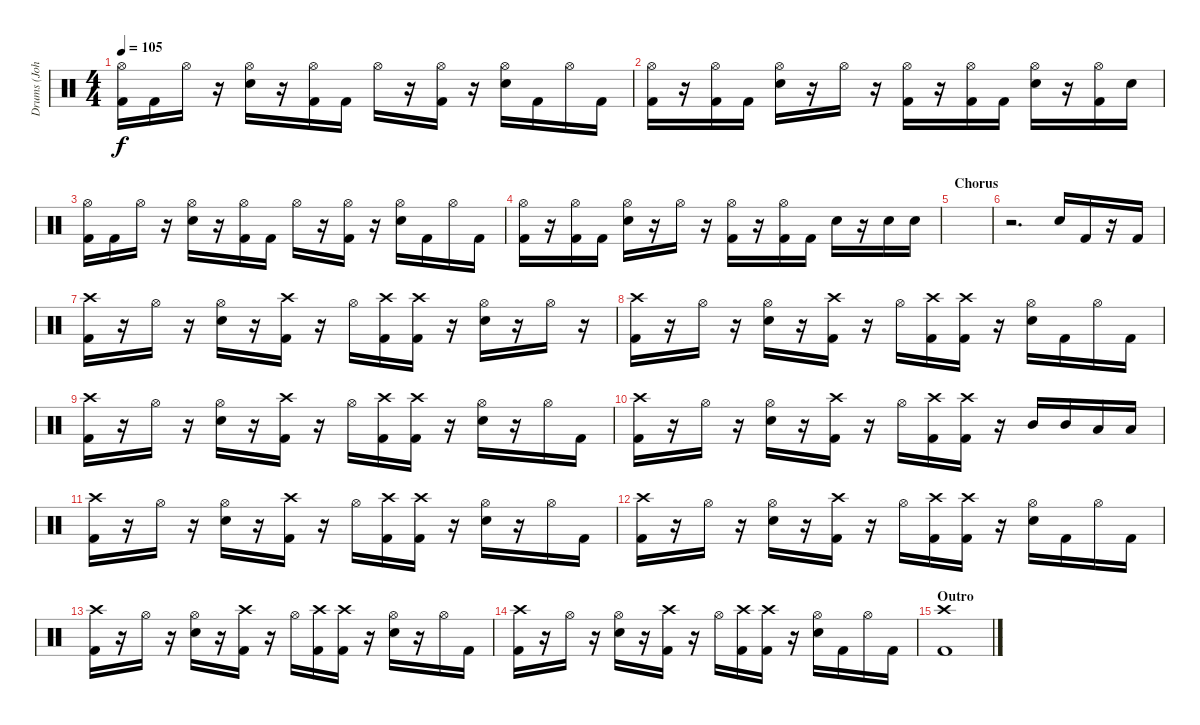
\track ("Drums (John Otto)" "Drums (Joh") {instrument percussion}
\staff {score}
\articulation defaults
\ts (4 4)
\tempo 105
\clef neutral
\ks c
("Hi-Hat (open)" "Kick (hit) 2").16{dy f} "Kick (hit) 2".16 "Hi-Hat (open)".16 r.16 ("Hi-Hat (open)" "Electric Snare (hit)").16 r.16 ("Hi-Hat (open)" "Kick (hit) 2").16 "Kick (hit) 2".16 "Hi-Hat (open)".16 r.16 ("Hi-Hat (open)" "Kick (hit) 2").16 r.16 ("Hi-Hat (open)" "Electric Snare (hit)").16 "Kick (hit) 2".16 "Hi-Hat (open)".16 "Kick (hit) 2".16 |
("Hi-Hat (open)" "Kick (hit) 2").16 r.16 ("Hi-Hat (open)" "Kick (hit) 2").16 "Kick (hit) 2".16 ("Hi-Hat (open)" "Electric Snare (hit)").16 r.16 "Hi-Hat (open)".16 r.16 ("Hi-Hat (open)" "Kick (hit) 2").16 r.16 ("Hi-Hat (open)" "Kick (hit) 2").16 "Kick (hit) 2".16 ("Hi-Hat (open)" "Electric Snare (hit)").16 r.16 ("Hi-Hat (open)" "Kick (hit) 2").16 "Electric Snare (hit)".16 |
("Hi-Hat (open)" "Kick (hit) 2").16 "Kick (hit) 2".16 "Hi-Hat (open)".16 r.16 ("Hi-Hat (open)" "Electric Snare (hit)").16 r.16 ("Hi-Hat (open)" "Kick (hit) 2").16 "Kick (hit) 2".16 "Hi-Hat (open)".16 r.16 ("Hi-Hat (open)" "Kick (hit) 2").16 r.16 ("Hi-Hat (open)" "Electric Snare (hit)").16 "Kick (hit) 2".16 "Hi-Hat (open)".16 "Kick (hit) 2".16 |
("Hi-Hat (open)" "Kick (hit) 2").16 r.16 ("Hi-Hat (open)" "Kick (hit) 2").16 "Kick (hit) 2".16 ("Hi-Hat (open)" "Electric Snare (hit)").16 r.16 "Hi-Hat (open)".16 r.16 ("Hi-Hat (open)" "Kick (hit) 2").16 r.16 ("Hi-Hat (open)" "Kick (hit) 2").16 "Kick (hit) 2".16 "Electric Snare (hit)".16 r.16 "Electric Snare (hit)".16 "Electric Snare (hit)".16 |
\section ("" "Chorus")
|
r.2{d} "Electric Snare (hit)".16 "Kick (hit) 2".16 r.16 "Kick (hit) 2".16 |
("Crash high (hit)" "Kick (hit) 2").16 r.16 "Hi-Hat (open)".16 r.16 ("Hi-Hat (open)" "Electric Snare (hit)").16 r.16 ("Crash high (hit)" "Kick (hit) 2").16 r.16 "Hi-Hat (open)".16 ("Crash high (hit)" "Kick (hit) 2").16 ("Crash high (hit)" "Kick (hit) 2").16 r.16 ("Hi-Hat (open)" "Electric Snare (hit)").16 r.16 "Hi-Hat (open)".16 r.16 |
("Crash high (hit)" "Kick (hit) 2").16 r.16 "Hi-Hat (open)".16 r.16 ("Hi-Hat (open)" "Electric Snare (hit)").16 r.16 ("Crash high (hit)" "Kick (hit) 2").16 r.16 "Hi-Hat (open)".16 ("Crash high (hit)" "Kick (hit) 2").16 ("Crash high (hit)" "Kick (hit) 2").16 r.16 ("Hi-Hat (open)" "Electric Snare (hit)").16 "Kick (hit) 2".16 "Hi-Hat (open)".16 "Kick (hit) 2".16 |
("Crash high (hit)" "Kick (hit) 2").16 r.16 "Hi-Hat (open)".16 r.16 ("Hi-Hat (open)" "Electric Snare (hit)").16 r.16 ("Crash high (hit)" "Kick (hit) 2").16 r.16 "Hi-Hat (open)".16 ("Crash high (hit)" "Kick (hit) 2").16 ("Crash high (hit)" "Kick (hit) 2").16 r.16 ("Hi-Hat (open)" "Electric Snare (hit)").16 r.16 "Hi-Hat (open)".16 "Kick (hit) 2".16 |
("Crash high (hit)" "Kick (hit) 2").16 r.16 "Hi-Hat (open)".16 r.16 ("Hi-Hat (open)" "Electric Snare (hit)").16 r.16 ("Crash high (hit)" "Kick (hit) 2").16 r.16 "Hi-Hat (open)".16 ("Crash high (hit)" "Kick (hit) 2").16 ("Crash high (hit)" "Kick (hit) 2").16 r.16 "Mid Tom (hit)".16 "Mid Tom (hit)".16 "Low Tom (hit)".16 "Low Tom (hit)".16 |
("Crash high (hit)" "Kick (hit) 2").16 r.16 "Hi-Hat (open)".16 r.16 ("Hi-Hat (open)" "Electric Snare (hit)").16 r.16 ("Crash high (hit)" "Kick (hit) 2").16 r.16 "Hi-Hat (open)".16 ("Crash high (hit)" "Kick (hit) 2").16 ("Crash high (hit)" "Kick (hit) 2").16 r.16 ("Hi-Hat (open)" "Electric Snare (hit)").16 r.16 "Hi-Hat (open)".16 "Kick (hit) 2".16 |
("Crash high (hit)" "Kick (hit) 2").16 r.16 "Hi-Hat (open)".16 r.16 ("Hi-Hat (open)" "Electric Snare (hit)").16 r.16 ("Crash high (hit)" "Kick (hit) 2").16 r.16 "Hi-Hat (open)".16 ("Crash high (hit)" "Kick (hit) 2").16 ("Crash high (hit)" "Kick (hit) 2").16 r.16 ("Hi-Hat (open)" "Electric Snare (hit)").16 "Kick (hit) 2".16 "Hi-Hat (open)".16 "Kick (hit) 2".16 |
("Crash high (hit)" "Kick (hit) 2").16 r.16 "Hi-Hat (open)".16 r.16 ("Hi-Hat (open)" "Electric Snare (hit)").16 r.16 ("Crash high (hit)" "Kick (hit) 2").16 r.16 "Hi-Hat (open)".16 ("Crash high (hit)" "Kick (hit) 2").16 ("Crash high (hit)" "Kick (hit) 2").16 r.16 ("Hi-Hat (open)" "Electric Snare (hit)").16 r.16 "Hi-Hat (open)".16 "Kick (hit) 2".16 |
("Crash high (hit)" "Kick (hit) 2").16 r.16 "Hi-Hat (open)".16 r.16 ("Hi-Hat (open)" "Electric Snare (hit)").16 r.16 ("Crash high (hit)" "Kick (hit) 2").16 r.16 "Hi-Hat (open)".16 ("Crash high (hit)" "Kick (hit) 2").16 ("Crash high (hit)" "Kick (hit) 2").16 r.16 ("Hi-Hat (open)" "Electric Snare (hit)").16 "Kick (hit) 2".16 "Hi-Hat (open)".16 "Kick (hit) 2".16 |
\section ("" "Outro")
("Crash high (hit)" "Kick (hit) 2").1
